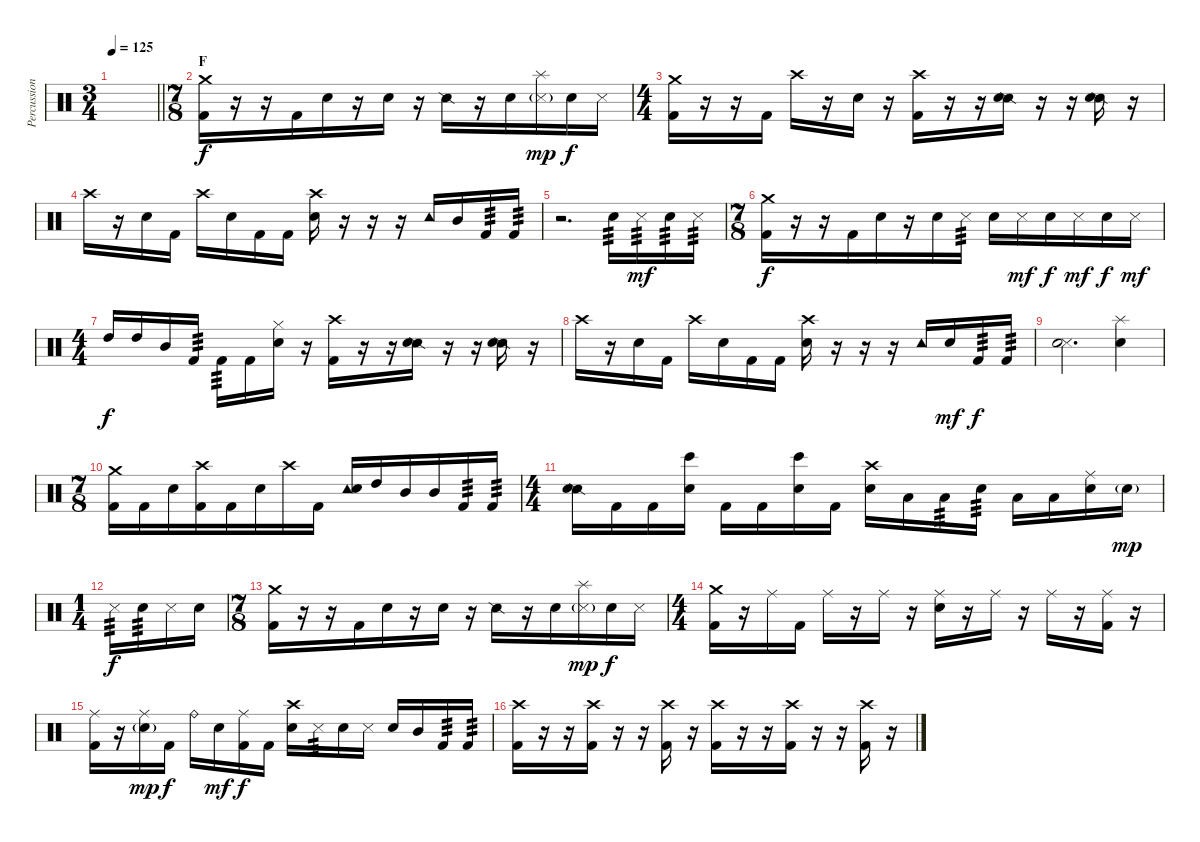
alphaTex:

\track ("Percussion" "Percussion") {instrument percussion}
\staff {score}
\articulation defaults
\ts (3 4)
\tempo 125
\clef neutral
\barLineRight lightlight
\ks c
|
\ts (7 8)
\section ("" "F")
("Crash medium (hit)" "Kick (hit) 2").16 r.16 r.16 "Kick (hit) 2".16 "Snare (hit)".16 r.16 "Snare (hit) 2".16 r.16 "Snare (side stick) 2".16 r.16 "Snare (hit) 2".16 ("Splash (hit)" "Metronome (hit)"{g}).16{dy mp} "Snare (hit) 2".16{dy f} "Metronome (hit)".16 |
\ts (4 4)
("Crash medium (hit)" "Kick (hit) 2").16 r.16 r.16 "Kick (hit) 2".16 "Crash high (hit)".16 r.16 "Snare (hit) 2".16 r.16 ("Crash high (hit)" "Kick (hit) 2").16 r.16 r.16 ("Snare (side stick) 2" "Snare (hit) 2").16 r.16 r.16 ("Snare (side stick) 2" "Snare (hit) 2").16 r.16 |
"Crash high (hit)".16 r.16 "Snare (hit) 2".16 "Kick (hit) 2".16 "Crash high (hit)".16 "Snare (hit) 2".16 "Kick (hit) 2".16 "Kick (hit) 2".16 ("Crash high (hit)" "Snare (hit) 2").16 r.16 r.16 r.16 "Tambourine (hit)".16 "Mid Tom (hit)".16 "Kick (hit) 2".16{tp 3} "Kick (hit) 2".16{tp 3} |
r.2{d} "Snare (hit) 2".16{tp 3} "Metronome (hit)".16{tp 3 dy mf} "Snare (hit) 2".16{tp 3} "Metronome (hit)".16{tp 3} |
\ts (7 8)
("Crash medium (hit)" "Kick (hit) 2").16{dy f} r.16 r.16 "Kick (hit) 2".16 "Snare (hit)".16 r.16 "Snare (hit) 2".16 "Metronome (hit)".16{tp 3} "Snare (hit) 2".16 "Metronome (hit)".16{dy mf} "Snare (hit) 2".16{dy f} "Metronome (hit)".16{dy mf} "Snare (hit) 2".16{dy f} "Metronome (hit)".16{dy mf} |
\ts (4 4)
"High Tom (hit)".16{dy f} "High Tom (hit)".16 "Mid Tom (hit)".16 "Kick (hit) 2".16{tp 3} "Kick (hit) 2".16{tp 3} "Kick (hit) 2".16 ("Hi-Hat (closed)" "Snare (hit) 2").16 r.16 ("Crash high (hit)" "Kick (hit) 2").16 r.16 r.16 ("Snare (side stick) 2" "Snare (hit) 2").16 r.16 r.16 ("Snare (side stick) 2" "Snare (hit) 2").16 r.16 |
"Crash high (hit)".16 r.16 "Snare (hit) 2".16 "Kick (hit) 2".16 "Crash high (hit)".16 "Snare (hit) 2".16 "Kick (hit) 2".16 "Kick (hit) 2".16 ("Crash high (hit)" "Snare (hit) 2").16 r.16 r.16 r.16 "Tambourine (hit)".16 "Snare (hit) 2".16{dy mf} "Kick (hit) 2".16{tp 3 dy f} "Kick (hit) 2".16{tp 3} |
("Metronome (hit)" "Snare (hit) 2").2{d bu 60} ("Splash (hit)" "Snare (hit) 2").4 |
\ts (7 8)
("Crash medium (hit)" "Kick (hit) 2").16 "Kick (hit) 2".16 "Snare (hit) 2".16 ("Crash high (hit)" "Kick (hit) 2").16 "Kick (hit) 2".16 "Snare (hit) 2".16 "Crash high (hit)".16 "Kick (hit) 2".16 ("Tambourine (hit)" "Snare (hit) 2").16 "High Tom (hit)".16 "Mid Tom (hit)".16 "Mid Tom (hit)".16 "Kick (hit) 2".16{tp 3} "Kick (hit) 2".16{tp 3} |
\ts (4 4)
("Snare (side stick) 2" "Snare (hit) 2").16 "Kick (hit) 2".16 "Kick (hit) 2".16 ("Bongo High (hit)" "Snare (hit) 2").16 "Kick (hit) 2".16 "Kick (hit) 2".16 ("Bongo High (hit)" "Snare (hit) 2").16 "Kick (hit) 2".16 ("Crash high (hit)" "Snare (hit) 2").16 "Low Tom (hit)".16 "Low Tom (hit)".16{tp 3} "Snare (hit) 2".16{tp 3} "Low Floor Tom (hit)".16 "Low Floor Tom (hit)".16 ("Ride (middle)" "Snare (hit) 2").16 "Snare (hit) 2"{g}.16{dy mp} |
\ts (1 4)
"Metronome (hit)".16{tp 3 dy f} "Snare (hit) 2".16{tp 3} "Metronome (hit)".16 "Snare (hit) 2".16 |
\ts (7 8)
("Crash medium (hit)" "Kick (hit) 2").16 r.16 r.16 "Kick (hit) 2".16 "Snare (hit)".16 r.16 "Snare (hit) 2".16 r.16 "Snare (side stick) 2".16 r.16 "Snare (hit) 2".16 ("Splash (hit)" "Metronome (hit)"{g}).16{dy mp} "Snare (hit) 2".16{dy f} "Metronome (hit)".16 |
\ts (4 4)
("Crash medium (hit)" "Kick (hit) 2").16 r.16 "Ride (middle)".16 "Kick (hit) 2".16 "Ride (middle)".16 r.16 "Ride (middle)".16 r.16 ("Ride (middle)" "Snare (hit) 2").16 r.16 "Ride (middle)".16 r.16 "Ride (middle)".16 r.16 ("Ride (middle)" "Kick (hit) 2").16 r.16 |
("Ride (middle)" "Kick (hit) 2").16 r.16 ("Ride (middle)" "Snare (hit) 2"{g}).16{dy mp} "Kick (hit) 2".16{dy f} "Ride (bell)".16 "Snare (hit) 2".16{dy mf} ("Ride (middle)" "Kick (hit) 2").16{dy f} "Kick (hit) 2".16 ("Crash high (hit)" "Snare (hit) 2").16 "Metronome (hit)".16{tp 3} "Snare (hit) 2".16 "Metronome (hit)".16 "Snare (hit) 2".16 "Mid Tom (hit)".16 "Kick (hit) 2".16{tp 3} "Kick (hit) 2".16{tp 3} |
("Crash high (hit)" "Kick (hit) 2").16 r.16 r.16 ("Crash high (hit)" "Kick (hit) 2").16 r.16 r.16 ("Crash high (hit)" "Kick (hit) 2").16 r.16 ("Crash high (hit)" "Kick (hit) 2").16 r.16 r.16 ("Crash high (hit)" "Kick (hit) 2").16 r.16 r.16 ("Crash high (hit)" "Kick (hit) 2").16 r.16
